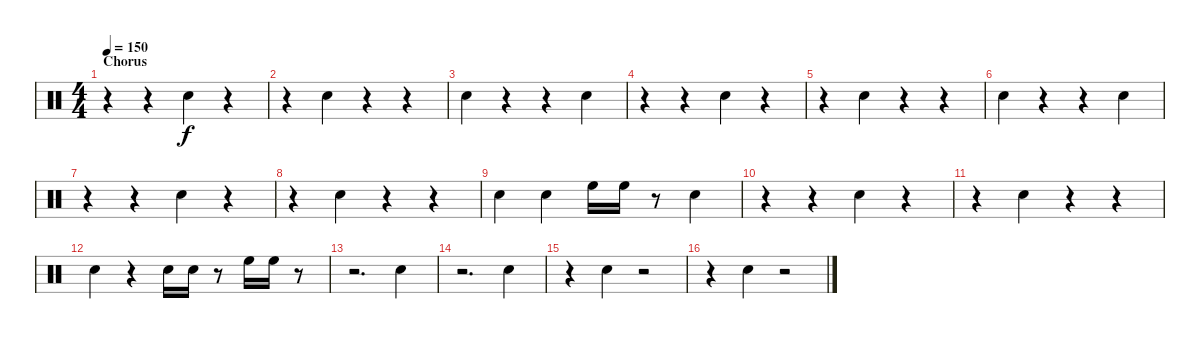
\track "" {instrument percussion}
\staff {score}
\articulation defaults
\ts (4 4)
\section ("" "Chorus")
\tempo 150
\clef neutral
\ks c
r.4{dy f} r.4 "Electric Snare (hit)".4 r.4 |
r.4 "Electric Snare (hit)".4 r.4 r.4 |
"Electric Snare (hit)".4 r.4 r.4 "Electric Snare (hit)".4 |
r.4 r.4 "Electric Snare (hit)".4 r.4 |
r.4 "Electric Snare (hit)".4 r.4 r.4 |
"Electric Snare (hit)".4 r.4 r.4 "Electric Snare (hit)".4 |
r.4 r.4 "Electric Snare (hit)".4 r.4 |
r.4 "Electric Snare (hit)".4 r.4 r.4 |
"Electric Snare (hit)".4 "Electric Snare (hit)".4 "High Floor Tom (hit)".16 "High Floor Tom (hit)".16 r.8 "Electric Snare (hit)".4 |
r.4 r.4 "Electric Snare (hit)".4 r.4 |
r.4 "Electric Snare (hit)".4 r.4 r.4 |
"Electric Snare (hit)".4 r.4 "Electric Snare (hit)".16 "Electric Snare (hit)".16 r.8 "High Floor Tom (hit)".16 "High Floor Tom (hit)".16 r.8 |
r.2{d} "Electric Snare (hit)".4 |
r.2{d} "Electric Snare (hit)".4 |
r.4 "Electric Snare (hit)".4 r.2 |
r.4 "Electric Snare (hit)".4 r.2
